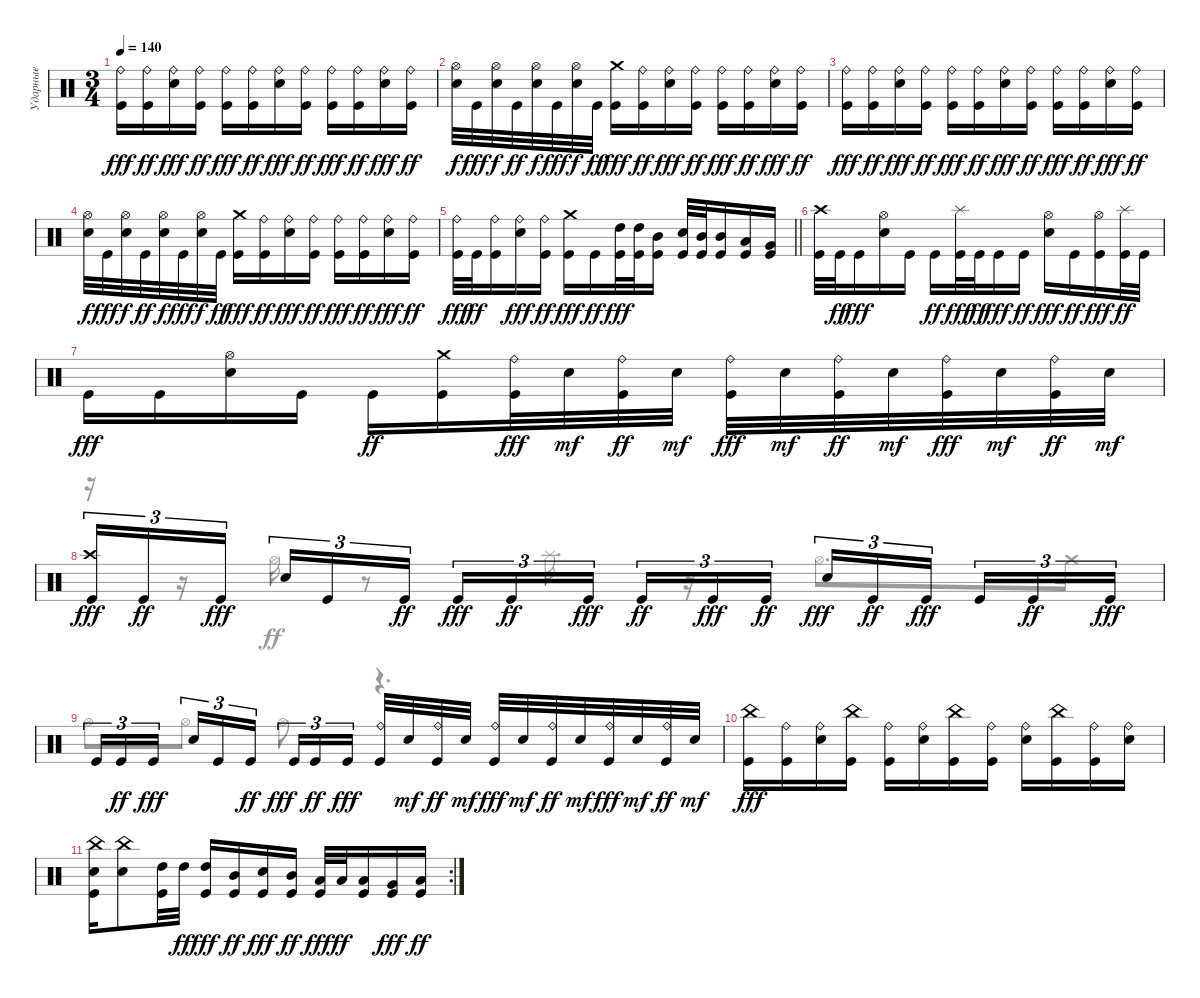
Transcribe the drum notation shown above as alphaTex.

\track ("Ударные" "Ударные") {instrument percussion}
\staff {score}
\articulation defaults
\voice
\ts (3 4)
\tempo 140
\clef neutral
\ks c
("Ride (bell)" "Kick (hit)").16{dy fff} ("Ride (bell)" "Kick (hit)").16{dy ff} ("Ride (bell)" "Electric Snare (hit)").16{dy fff} ("Ride (bell)" "Kick (hit)").16{dy ff} ("Ride (bell)" "Kick (hit)").16{dy fff} ("Ride (bell)" "Kick (hit)").16{dy ff} ("Ride (bell)" "Electric Snare (hit)").16{dy fff} ("Ride (bell)" "Kick (hit)").16{dy ff} ("Ride (bell)" "Kick (hit)").16{dy fff} ("Ride (bell)" "Kick (hit)").16{dy ff} ("Ride (bell)" "Electric Snare (hit)").16{dy fff} ("Ride (bell)" "Kick (hit)").16{dy ff} |
("Hi-Hat (open)" "Electric Snare (hit)").32{dy f} "Kick (hit)".32{dy fff} ("Hi-Hat (open)" "Electric Snare (hit)").32{dy f} "Kick (hit)".32{dy ff} ("Hi-Hat (open)" "Electric Snare (hit)").32{dy f} "Kick (hit)".32{dy fff} ("Hi-Hat (open)" "Electric Snare (hit)").32{dy f} "Kick (hit)".32{dy ff} ("Crash medium (hit)" "Kick (hit)").16{dy fff} ("Ride (bell)" "Kick (hit)").16{dy ff} ("Ride (bell)" "Electric Snare (hit)").16{dy fff} ("Ride (bell)" "Kick (hit)").16{dy ff} ("Ride (bell)" "Kick (hit)").16{dy fff} ("Ride (bell)" "Kick (hit)").16{dy ff} ("Ride (bell)" "Electric Snare (hit)").16{dy fff} ("Ride (bell)" "Kick (hit)").16{dy ff} |
("Ride (bell)" "Kick (hit)").16{dy fff} ("Ride (bell)" "Kick (hit)").16{dy ff} ("Ride (bell)" "Electric Snare (hit)").16{dy fff} ("Ride (bell)" "Kick (hit)").16{dy ff} ("Ride (bell)" "Kick (hit)").16{dy fff} ("Ride (bell)" "Kick (hit)").16{dy ff} ("Ride (bell)" "Electric Snare (hit)").16{dy fff} ("Ride (bell)" "Kick (hit)").16{dy ff} ("Ride (bell)" "Kick (hit)").16{dy fff} ("Ride (bell)" "Kick (hit)").16{dy ff} ("Ride (bell)" "Electric Snare (hit)").16{dy fff} ("Ride (bell)" "Kick (hit)").16{dy ff} |
("Hi-Hat (open)" "Electric Snare (hit)").32{dy f} "Kick (hit)".32{dy fff} ("Hi-Hat (open)" "Electric Snare (hit)").32{dy f} "Kick (hit)".32{dy ff} ("Hi-Hat (open)" "Electric Snare (hit)").32{dy f} "Kick (hit)".32{dy fff} ("Hi-Hat (open)" "Electric Snare (hit)").32{dy f} "Kick (hit)".32{dy ff} ("Crash medium (hit)" "Kick (hit)").16{dy fff} ("Ride (bell)" "Kick (hit)").16{dy ff} ("Ride (bell)" "Electric Snare (hit)").16{dy fff} ("Ride (bell)" "Kick (hit)").16{dy ff} ("Ride (bell)" "Kick (hit)").16{dy fff} ("Ride (bell)" "Kick (hit)").16{dy ff} ("Ride (bell)" "Electric Snare (hit)").16{dy fff} ("Ride (bell)" "Kick (hit)").16{dy ff} |
\barLineRight lightlight
("Ride (bell)" "Kick (hit)").32{dy fff} "Kick (hit)".32{dy ff} ("Ride (bell)" "Kick (hit)").16 ("Ride (bell)" "Electric Snare (hit)").16{dy fff} ("Ride (bell)" "Kick (hit)").16{dy ff} ("Crash medium (hit)" "Kick (hit)").16{dy fff} "Kick (hit)".16{dy ff} ("High Tom (hit)" "Kick (hit)").32{dy fff} ("High Tom (hit)" "Kick (hit)").32 ("Mid Tom (hit)" "Kick (hit)").16 ("Electric Snare (hit)" "Kick (hit)").32 ("Mid Tom (hit)" "Kick (hit)").32 ("Mid Tom (hit)" "Kick (hit)").16 ("Low Tom (hit)" "Kick (hit)").16 ("Very Low Tom (hit)" "Kick (hit)").16 |
("Crash high (hit)" "Kick (hit)").32 "Kick (hit)".32{dy ff} "Kick (hit)".16{dy fff} ("Hi-Hat (open)" "Electric Snare (hit)").16 "Kick (hit)".16 "Kick (hit)".16{dy ff} ("Splash (hit)" "Kick (hit)").32{dy fff} "Kick (hit)".32{dy ff} "Kick (hit)".16{dy fff} "Kick (hit)".16{dy ff} ("Hi-Hat (open)" "Electric Snare (hit)").16{dy fff} "Kick (hit)".16{dy ff} ("Hi-Hat (open)" "Kick (hit)").16{dy fff} ("Splash (hit)" "Kick (hit)").32{dy ff} "Kick (hit)".32 |
"Kick (hit)".16{dy fff} "Kick (hit)".16 ("Hi-Hat (open)" "Electric Snare (hit)").16 "Kick (hit)".16 "Kick (hit)".16{dy ff} ("Crash medium (hit)" "Kick (hit)").16 ("Ride (bell)" "Kick (hit)").32{dy fff} "Electric Snare (hit)".32{dy mf} ("Ride (bell)" "Kick (hit)").32{dy ff} "Electric Snare (hit)".32{dy mf} ("Ride (bell)" "Kick (hit)").32{dy fff} "Electric Snare (hit)".32{dy mf} ("Ride (bell)" "Kick (hit)").32{dy ff} "Electric Snare (hit)".32{dy mf} ("Ride (bell)" "Kick (hit)").32{dy fff} "Electric Snare (hit)".32{dy mf} ("Ride (bell)" "Kick (hit)").32{dy ff} "Electric Snare (hit)".32{dy mf} |
("Crash high (hit)" "Kick (hit)").16{tu (3 2) dy fff} "Kick (hit)".16{tu (3 2) dy ff} "Kick (hit)".16{tu (3 2) dy fff beam splitsecondary} "Electric Snare (hit)".16{tu (3 2)} "Kick (hit)".16{tu (3 2)} "Kick (hit)".16{tu (3 2) dy ff} "Kick (hit)".16{tu (3 2) dy fff} "Kick (hit)".16{tu (3 2) dy ff} "Kick (hit)".16{tu (3 2) dy fff beam splitsecondary} "Kick (hit)".16{tu (3 2) dy ff} "Kick (hit)".16{tu (3 2) dy fff} "Kick (hit)".16{tu (3 2) dy ff} "Electric Snare (hit)".16{tu (3 2) dy fff} "Kick (hit)".16{tu (3 2) dy ff} "Kick (hit)".16{tu (3 2) dy fff beam splitsecondary} "Kick (hit)".16{tu (3 2)} "Kick (hit)".16{tu (3 2) dy ff} "Kick (hit)".16{tu (3 2) dy fff} |
"Kick (hit)".16{tu (3 2)} "Kick (hit)".16{tu (3 2) dy ff} "Kick (hit)".16{tu (3 2) dy fff beam splitsecondary} "Electric Snare (hit)".16{tu (3 2)} "Kick (hit)".16{tu (3 2)} "Kick (hit)".16{tu (3 2) dy ff} "Kick (hit)".16{tu (3 2) dy fff} "Kick (hit)".16{tu (3 2) dy ff} "Kick (hit)".16{tu (3 2) dy fff beam splitsecondary} ("Ride (bell)" "Kick (hit)").32 "Electric Snare (hit)".32{dy mf} ("Ride (bell)" "Kick (hit)").32{dy ff} "Electric Snare (hit)".32{dy mf} ("Ride (bell)" "Kick (hit)").32{dy fff} "Electric Snare (hit)".32{dy mf} ("Ride (bell)" "Kick (hit)").32{dy ff} "Electric Snare (hit)".32{dy mf} ("Ride (bell)" "Kick (hit)").32{dy fff} "Electric Snare (hit)".32{dy mf} ("Ride (bell)" "Kick (hit)").32{dy ff} "Electric Snare (hit)".32{dy mf} |
("China (hit)" "Kick (hit)").16{dy fff} ("Ride (bell)" "Kick (hit)").16 ("Ride (bell)" "Electric Snare (hit)").16 ("China (hit)" "Kick (hit)").16 ("Ride (bell)" "Kick (hit)").16 ("Ride (bell)" "Electric Snare (hit)").16 ("China (hit)" "Kick (hit)").16 ("Ride (bell)" "Kick (hit)").16 ("Ride (bell)" "Electric Snare (hit)").16 ("China (hit)" "Kick (hit)").16 ("Ride (bell)" "Kick (hit)").16 ("Ride (bell)" "Electric Snare (hit)").16 |
\rc 2
("China (hit)" "Electric Snare (hit)" "Kick (hit)").16 ("China (hit)" "Electric Snare (hit)").8 ("High Tom (hit)" "Kick (hit)").32 "High Tom (hit)".32{dy ff} ("High Tom (hit)" "Kick (hit)").16{dy fff} ("Mid Tom (hit)" "Kick (hit)").16{dy ff} ("Electric Snare (hit)" "Kick (hit)").16{dy fff} ("Mid Tom (hit)" "Kick (hit)").16{dy ff} ("Low Tom (hit)" "Kick (hit)").32{dy fff} "Low Tom (hit)".32{dy ff} ("Low Tom (hit)" "Kick (hit)").16 ("Very Low Tom (hit)" "Kick (hit)").16{dy fff} ("Low Floor Tom (hit)" "Kick (hit)").16{dy ff}
\voice
\clef neutral
\ottava regular
\simile none
\ks c
|
|
|
|
\barLineRight lightlight
|
|
|
r.16 r.16 "Hi-Hat (open)".16 r.8 "Splash (hit)".16{d} r.16{d} "Hi-Hat (open)".8{d} "Crash medium (hit)".16 |
"Hi-Hat (open)".8 "Hi-Hat (open)".8 "Hi-Hat (open)".8 r.4{d} |
|
